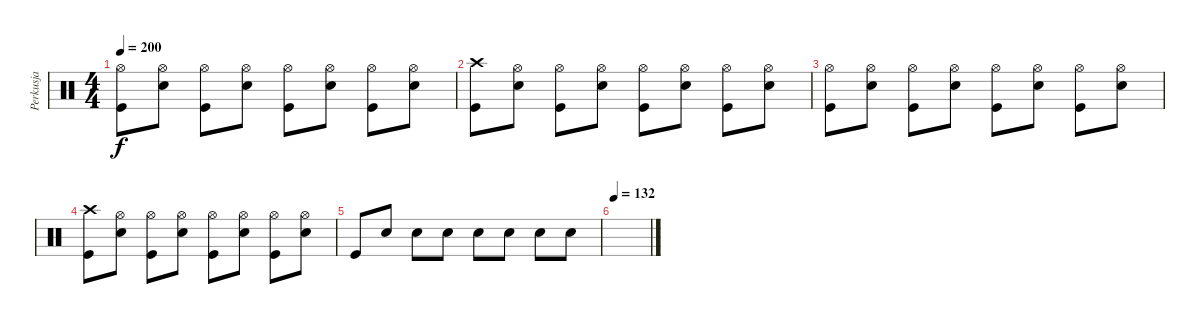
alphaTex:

\track ("Perkusja" "Perkusja") {instrument percussion}
\staff {score}
\articulation defaults
\ts (4 4)
\tempo 200
\clef neutral
\ks c
("Hi-Hat (open)" "Kick (hit)").8{dy f} ("Hi-Hat (open)" "Electric Snare (hit)").8 ("Hi-Hat (open)" "Kick (hit)").8 ("Hi-Hat (open)" "Electric Snare (hit)").8 ("Hi-Hat (open)" "Kick (hit)").8 ("Hi-Hat (open)" "Electric Snare (hit)").8 ("Hi-Hat (open)" "Kick (hit)").8 ("Hi-Hat (open)" "Electric Snare (hit)").8 |
("Crash high (hit)" "Kick (hit)").8 ("Hi-Hat (open)" "Electric Snare (hit)").8 ("Hi-Hat (open)" "Kick (hit)").8 ("Hi-Hat (open)" "Electric Snare (hit)").8 ("Hi-Hat (open)" "Kick (hit)").8 ("Hi-Hat (open)" "Electric Snare (hit)").8 ("Hi-Hat (open)" "Kick (hit)").8 ("Hi-Hat (open)" "Electric Snare (hit)").8 |
("Hi-Hat (open)" "Kick (hit)").8 ("Hi-Hat (open)" "Electric Snare (hit)").8 ("Hi-Hat (open)" "Kick (hit)").8 ("Hi-Hat (open)" "Electric Snare (hit)").8 ("Hi-Hat (open)" "Kick (hit)").8 ("Hi-Hat (open)" "Electric Snare (hit)").8 ("Hi-Hat (open)" "Kick (hit)").8 ("Hi-Hat (open)" "Electric Snare (hit)").8 |
("Crash high (hit)" "Kick (hit)").8 ("Hi-Hat (open)" "Electric Snare (hit)").8 ("Hi-Hat (open)" "Kick (hit)").8 ("Hi-Hat (open)" "Electric Snare (hit)").8 ("Hi-Hat (open)" "Kick (hit)").8 ("Hi-Hat (open)" "Electric Snare (hit)").8 ("Hi-Hat (open)" "Kick (hit)").8 ("Hi-Hat (open)" "Electric Snare (hit)").8 |
"Kick (hit)".8 "Electric Snare (hit)".8 "Electric Snare (hit)".8 "Electric Snare (hit)".8 "Electric Snare (hit)".8 "Electric Snare (hit)".8 "Electric Snare (hit)".8 "Electric Snare (hit)".8 |
\tempo 132
